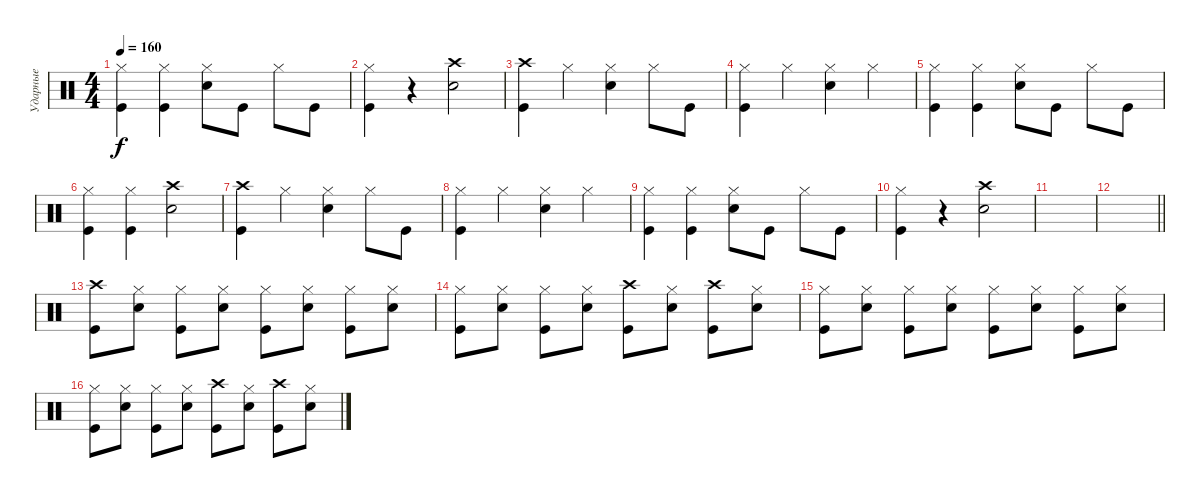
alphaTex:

\track ("Ударные" "Ударные") {instrument percussion}
\staff {score}
\articulation defaults
\ts (4 4)
\tempo 160
\clef neutral
\ks c
("Hi-Hat (closed)" "Kick (hit)").4{dy f} ("Hi-Hat (closed)" "Kick (hit)").4 ("Hi-Hat (closed)" "Snare (hit) 2").8 "Kick (hit)".8 "Hi-Hat (closed)".8 "Kick (hit)".8 |
("Hi-Hat (closed)" "Kick (hit)").4 r.4 ("Crash high (hit)" "Snare (hit) 2").2 |
("Kick (hit)" "Crash high (hit)").4 "Hi-Hat (closed)".4 ("Hi-Hat (closed)" "Snare (hit) 2").4 "Hi-Hat (closed)".8 "Kick (hit)".8 |
("Kick (hit)" "Hi-Hat (closed)").4 "Hi-Hat (closed)".4 ("Hi-Hat (closed)" "Snare (hit) 2").4 "Hi-Hat (closed)".4 |
("Hi-Hat (closed)" "Kick (hit)").4 ("Hi-Hat (closed)" "Kick (hit)").4 ("Hi-Hat (closed)" "Snare (hit) 2").8 "Kick (hit)".8 "Hi-Hat (closed)".8 "Kick (hit)".8 |
("Hi-Hat (closed)" "Kick (hit)").4 ("Hi-Hat (closed)" "Kick (hit)").4 ("Crash high (hit)" "Snare (hit) 2").2 |
("Kick (hit)" "Crash high (hit)").4 "Hi-Hat (closed)".4 ("Hi-Hat (closed)" "Snare (hit) 2").4 "Hi-Hat (closed)".8 "Kick (hit)".8 |
("Kick (hit)" "Hi-Hat (closed)").4 "Hi-Hat (closed)".4 ("Hi-Hat (closed)" "Snare (hit) 2").4 "Hi-Hat (closed)".4 |
("Hi-Hat (closed)" "Kick (hit)").4 ("Hi-Hat (closed)" "Kick (hit)").4 ("Hi-Hat (closed)" "Snare (hit) 2").8 "Kick (hit)".8 "Hi-Hat (closed)".8 "Kick (hit)".8 |
("Hi-Hat (closed)" "Kick (hit)").4 r.4 ("Crash high (hit)" "Snare (hit) 2").2 |
|
\barLineRight lightlight
|
("Crash high (hit)" "Kick (hit)").8 ("Hi-Hat (closed)" "Snare (hit) 2").8 ("Hi-Hat (closed)" "Kick (hit)").8 ("Hi-Hat (closed)" "Snare (hit) 2").8 ("Hi-Hat (closed)" "Kick (hit)").8 ("Hi-Hat (closed)" "Snare (hit) 2").8 ("Hi-Hat (closed)" "Kick (hit)").8 ("Hi-Hat (closed)" "Snare (hit) 2").8 |
("Hi-Hat (closed)" "Kick (hit)").8 ("Hi-Hat (closed)" "Snare (hit) 2").8 ("Hi-Hat (closed)" "Kick (hit)").8 ("Hi-Hat (closed)" "Snare (hit) 2").8 ("Crash high (hit)" "Kick (hit)").8 ("Hi-Hat (closed)" "Snare (hit) 2").8 ("Crash high (hit)" "Kick (hit)").8 ("Hi-Hat (closed)" "Snare (hit) 2").8 |
("Hi-Hat (closed)" "Kick (hit)").8 ("Hi-Hat (closed)" "Snare (hit) 2").8 ("Hi-Hat (closed)" "Kick (hit)").8 ("Hi-Hat (closed)" "Snare (hit) 2").8 ("Hi-Hat (closed)" "Kick (hit)").8 ("Hi-Hat (closed)" "Snare (hit) 2").8 ("Hi-Hat (closed)" "Kick (hit)").8 ("Hi-Hat (closed)" "Snare (hit) 2").8 |
("Hi-Hat (closed)" "Kick (hit)").8 ("Hi-Hat (closed)" "Snare (hit) 2").8 ("Hi-Hat (closed)" "Kick (hit)").8 ("Hi-Hat (closed)" "Snare (hit) 2").8 ("Crash high (hit)" "Kick (hit)").8 ("Hi-Hat (closed)" "Snare (hit) 2").8 ("Crash high (hit)" "Kick (hit)").8 ("Hi-Hat (closed)" "Snare (hit) 2").8
